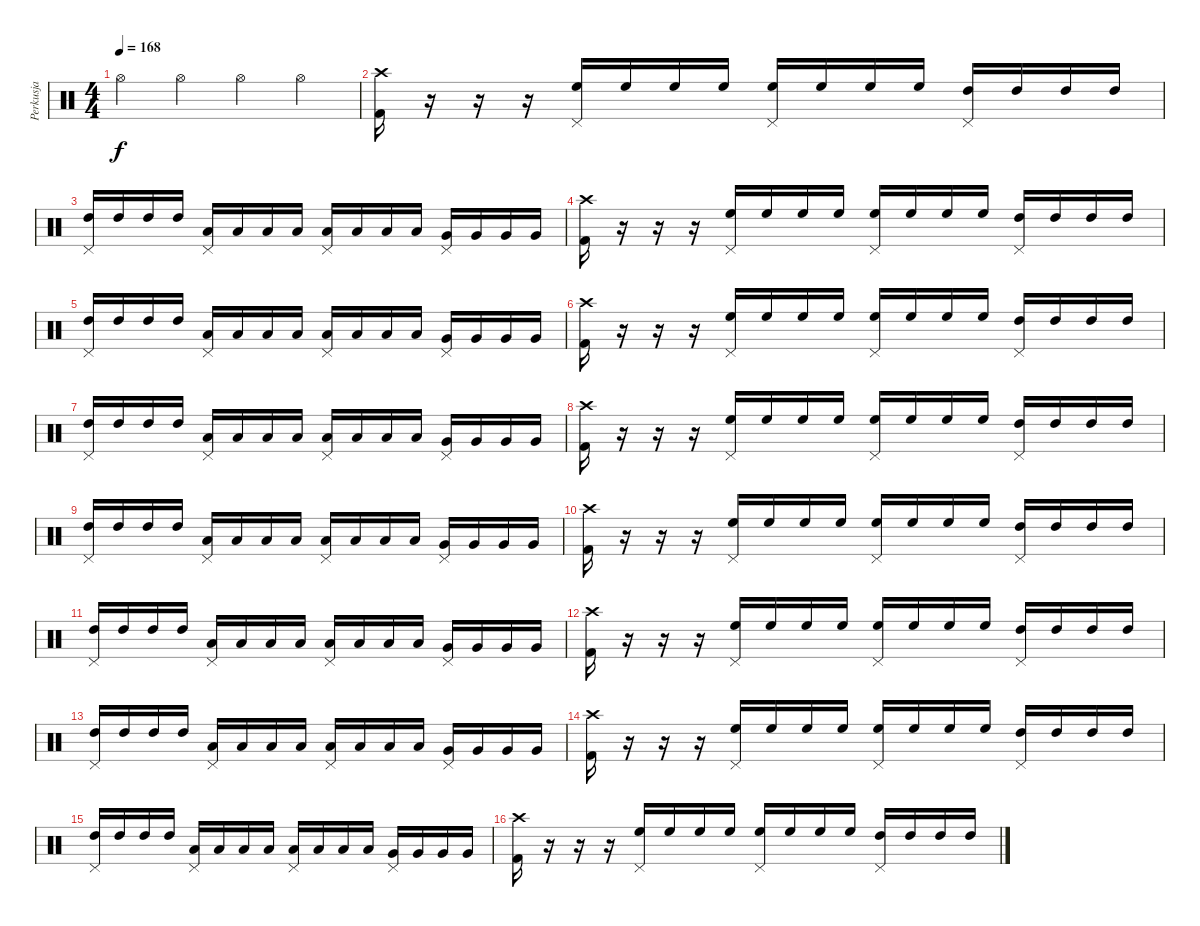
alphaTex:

\track ("Perkusja" "Perkusja") {instrument percussion}
\staff {score}
\articulation defaults
\ts (4 4)
\tempo 168
\tempo 153
\tempo 168
\clef neutral
\ks c "Hi-Hat (open)".4{dy f} "Hi-Hat (open)".4 "Hi-Hat (open)".4 "Hi-Hat (open)".4
|
("Crash high (hit)" "Kick (hit) 2").16 r.16 r.16 r.16 ("Pedal Hi-Hat (hit)" "High Floor Tom (hit)").16 "High Floor Tom (hit)".16 "High Floor Tom (hit)".16 "High Floor Tom (hit)".16 ("Pedal Hi-Hat (hit)" "High Floor Tom (hit)").16 "High Floor Tom (hit)".16 "High Floor Tom (hit)".16 "High Floor Tom (hit)".16 ("Pedal Hi-Hat (hit)" "High Tom (hit)").16 "High Tom (hit)".16 "High Tom (hit)".16 "High Tom (hit)".16 |
("Pedal Hi-Hat (hit)" "High Tom (hit)").16 "High Tom (hit)".16 "High Tom (hit)".16 "High Tom (hit)".16 ("Pedal Hi-Hat (hit)" "Low Tom (hit)").16 "Low Tom (hit)".16 "Low Tom (hit)".16 "Low Tom (hit)".16 ("Pedal Hi-Hat (hit)" "Low Tom (hit)").16 "Low Tom (hit)".16 "Low Tom (hit)".16 "Low Tom (hit)".16 ("Pedal Hi-Hat (hit)" "Very Low Tom (hit)").16 "Very Low Tom (hit)".16 "Very Low Tom (hit)".16 "Very Low Tom (hit)".16 |
("Crash high (hit)" "Kick (hit) 2").16 r.16 r.16 r.16 ("Pedal Hi-Hat (hit)" "High Floor Tom (hit)").16 "High Floor Tom (hit)".16 "High Floor Tom (hit)".16 "High Floor Tom (hit)".16 ("Pedal Hi-Hat (hit)" "High Floor Tom (hit)").16 "High Floor Tom (hit)".16 "High Floor Tom (hit)".16 "High Floor Tom (hit)".16 ("Pedal Hi-Hat (hit)" "High Tom (hit)").16 "High Tom (hit)".16 "High Tom (hit)".16 "High Tom (hit)".16 |
("Pedal Hi-Hat (hit)" "High Tom (hit)").16 "High Tom (hit)".16 "High Tom (hit)".16 "High Tom (hit)".16 ("Pedal Hi-Hat (hit)" "Low Tom (hit)").16 "Low Tom (hit)".16 "Low Tom (hit)".16 "Low Tom (hit)".16 ("Pedal Hi-Hat (hit)" "Low Tom (hit)").16 "Low Tom (hit)".16 "Low Tom (hit)".16 "Low Tom (hit)".16 ("Pedal Hi-Hat (hit)" "Very Low Tom (hit)").16 "Very Low Tom (hit)".16 "Very Low Tom (hit)".16 "Very Low Tom (hit)".16 |
("Crash high (hit)" "Kick (hit) 2").16 r.16 r.16 r.16 ("Pedal Hi-Hat (hit)" "High Floor Tom (hit)").16 "High Floor Tom (hit)".16 "High Floor Tom (hit)".16 "High Floor Tom (hit)".16 ("Pedal Hi-Hat (hit)" "High Floor Tom (hit)").16 "High Floor Tom (hit)".16 "High Floor Tom (hit)".16 "High Floor Tom (hit)".16 ("Pedal Hi-Hat (hit)" "High Tom (hit)").16 "High Tom (hit)".16 "High Tom (hit)".16 "High Tom (hit)".16 |
("Pedal Hi-Hat (hit)" "High Tom (hit)").16 "High Tom (hit)".16 "High Tom (hit)".16 "High Tom (hit)".16 ("Pedal Hi-Hat (hit)" "Low Tom (hit)").16 "Low Tom (hit)".16 "Low Tom (hit)".16 "Low Tom (hit)".16 ("Pedal Hi-Hat (hit)" "Low Tom (hit)").16 "Low Tom (hit)".16 "Low Tom (hit)".16 "Low Tom (hit)".16 ("Pedal Hi-Hat (hit)" "Very Low Tom (hit)").16 "Very Low Tom (hit)".16 "Very Low Tom (hit)".16 "Very Low Tom (hit)".16 |
("Crash high (hit)" "Kick (hit) 2").16 r.16 r.16 r.16 ("Pedal Hi-Hat (hit)" "High Floor Tom (hit)").16 "High Floor Tom (hit)".16 "High Floor Tom (hit)".16 "High Floor Tom (hit)".16 ("Pedal Hi-Hat (hit)" "High Floor Tom (hit)").16 "High Floor Tom (hit)".16 "High Floor Tom (hit)".16 "High Floor Tom (hit)".16 ("Pedal Hi-Hat (hit)" "High Tom (hit)").16 "High Tom (hit)".16 "High Tom (hit)".16 "High Tom (hit)".16 |
("Pedal Hi-Hat (hit)" "High Tom (hit)").16 "High Tom (hit)".16 "High Tom (hit)".16 "High Tom (hit)".16 ("Pedal Hi-Hat (hit)" "Low Tom (hit)").16 "Low Tom (hit)".16 "Low Tom (hit)".16 "Low Tom (hit)".16 ("Pedal Hi-Hat (hit)" "Low Tom (hit)").16 "Low Tom (hit)".16 "Low Tom (hit)".16 "Low Tom (hit)".16 ("Pedal Hi-Hat (hit)" "Very Low Tom (hit)").16 "Very Low Tom (hit)".16 "Very Low Tom (hit)".16 "Very Low Tom (hit)".16 |
("Crash high (hit)" "Kick (hit) 2").16 r.16 r.16 r.16 ("Pedal Hi-Hat (hit)" "High Floor Tom (hit)").16 "High Floor Tom (hit)".16 "High Floor Tom (hit)".16 "High Floor Tom (hit)".16 ("Pedal Hi-Hat (hit)" "High Floor Tom (hit)").16 "High Floor Tom (hit)".16 "High Floor Tom (hit)".16 "High Floor Tom (hit)".16 ("Pedal Hi-Hat (hit)" "High Tom (hit)").16 "High Tom (hit)".16 "High Tom (hit)".16 "High Tom (hit)".16 |
("Pedal Hi-Hat (hit)" "High Tom (hit)").16 "High Tom (hit)".16 "High Tom (hit)".16 "High Tom (hit)".16 ("Pedal Hi-Hat (hit)" "Low Tom (hit)").16 "Low Tom (hit)".16 "Low Tom (hit)".16 "Low Tom (hit)".16 ("Pedal Hi-Hat (hit)" "Low Tom (hit)").16 "Low Tom (hit)".16 "Low Tom (hit)".16 "Low Tom (hit)".16 ("Pedal Hi-Hat (hit)" "Very Low Tom (hit)").16 "Very Low Tom (hit)".16 "Very Low Tom (hit)".16 "Very Low Tom (hit)".16 |
("Crash high (hit)" "Kick (hit) 2").16 r.16 r.16 r.16 ("Pedal Hi-Hat (hit)" "High Floor Tom (hit)").16 "High Floor Tom (hit)".16 "High Floor Tom (hit)".16 "High Floor Tom (hit)".16 ("Pedal Hi-Hat (hit)" "High Floor Tom (hit)").16 "High Floor Tom (hit)".16 "High Floor Tom (hit)".16 "High Floor Tom (hit)".16 ("Pedal Hi-Hat (hit)" "High Tom (hit)").16 "High Tom (hit)".16 "High Tom (hit)".16 "High Tom (hit)".16 |
("Pedal Hi-Hat (hit)" "High Tom (hit)").16 "High Tom (hit)".16 "High Tom (hit)".16 "High Tom (hit)".16 ("Pedal Hi-Hat (hit)" "Low Tom (hit)").16 "Low Tom (hit)".16 "Low Tom (hit)".16 "Low Tom (hit)".16 ("Pedal Hi-Hat (hit)" "Low Tom (hit)").16 "Low Tom (hit)".16 "Low Tom (hit)".16 "Low Tom (hit)".16 ("Pedal Hi-Hat (hit)" "Very Low Tom (hit)").16 "Very Low Tom (hit)".16 "Very Low Tom (hit)".16 "Very Low Tom (hit)".16 |
("Crash high (hit)" "Kick (hit) 2").16 r.16 r.16 r.16 ("Pedal Hi-Hat (hit)" "High Floor Tom (hit)").16 "High Floor Tom (hit)".16 "High Floor Tom (hit)".16 "High Floor Tom (hit)".16 ("Pedal Hi-Hat (hit)" "High Floor Tom (hit)").16 "High Floor Tom (hit)".16 "High Floor Tom (hit)".16 "High Floor Tom (hit)".16 ("Pedal Hi-Hat (hit)" "High Tom (hit)").16 "High Tom (hit)".16 "High Tom (hit)".16 "High Tom (hit)".16 |
("Pedal Hi-Hat (hit)" "High Tom (hit)").16 "High Tom (hit)".16 "High Tom (hit)".16 "High Tom (hit)".16 ("Pedal Hi-Hat (hit)" "Low Tom (hit)").16 "Low Tom (hit)".16 "Low Tom (hit)".16 "Low Tom (hit)".16 ("Pedal Hi-Hat (hit)" "Low Tom (hit)").16 "Low Tom (hit)".16 "Low Tom (hit)".16 "Low Tom (hit)".16 ("Pedal Hi-Hat (hit)" "Very Low Tom (hit)").16 "Very Low Tom (hit)".16 "Very Low Tom (hit)".16 "Very Low Tom (hit)".16 |
("Crash high (hit)" "Kick (hit) 2").16 r.16 r.16 r.16 ("Pedal Hi-Hat (hit)" "High Floor Tom (hit)").16 "High Floor Tom (hit)".16 "High Floor Tom (hit)".16 "High Floor Tom (hit)".16 ("Pedal Hi-Hat (hit)" "High Floor Tom (hit)").16 "High Floor Tom (hit)".16 "High Floor Tom (hit)".16 "High Floor Tom (hit)".16 ("Pedal Hi-Hat (hit)" "High Tom (hit)").16 "High Tom (hit)".16 "High Tom (hit)".16 "High Tom (hit)".16
